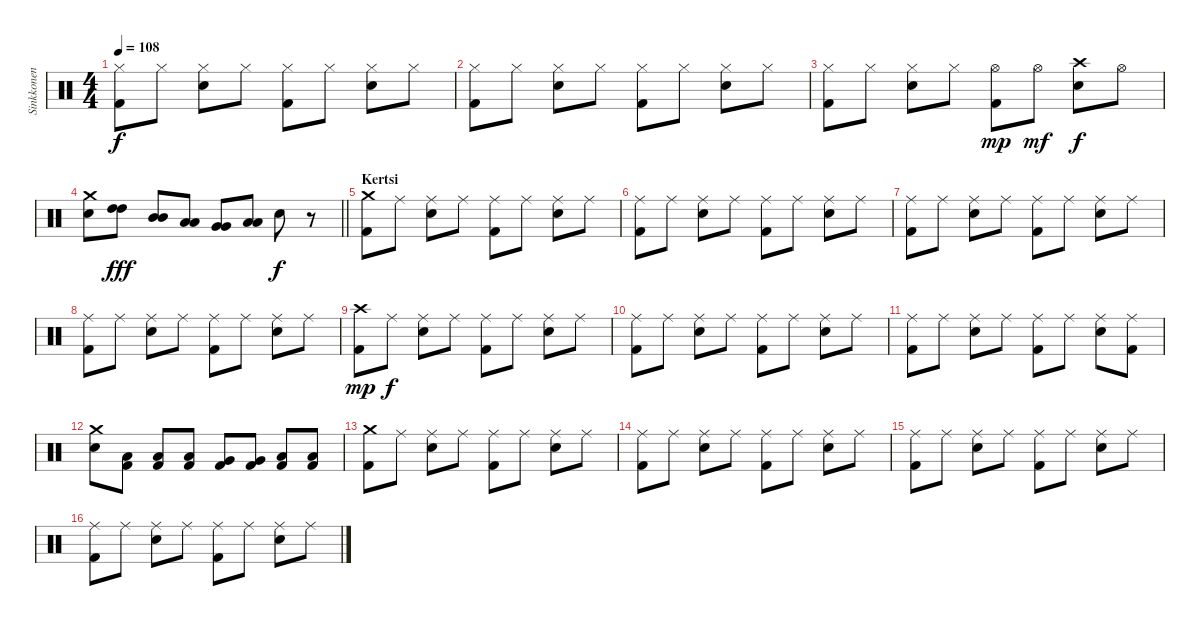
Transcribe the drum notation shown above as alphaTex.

\track ("Sinkkonen" "Sinkkonen") {instrument percussion}
\staff {score}
\articulation defaults
\ts (4 4)
\tempo 108
\clef neutral
\ks c
("Kick (hit) 2" "Hi-Hat (closed)").8{dy f} "Hi-Hat (closed)".8 ("Hi-Hat (closed)" "Snare (hit) 2").8 "Hi-Hat (closed)".8 ("Kick (hit) 2" "Hi-Hat (closed)").8 "Hi-Hat (closed)".8 ("Hi-Hat (closed)" "Snare (hit) 2").8 "Hi-Hat (closed)".8 |
("Kick (hit) 2" "Hi-Hat (closed)").8 "Hi-Hat (closed)".8 ("Hi-Hat (closed)" "Snare (hit) 2").8 "Hi-Hat (closed)".8 ("Kick (hit) 2" "Hi-Hat (closed)").8 "Hi-Hat (closed)".8 ("Hi-Hat (closed)" "Snare (hit) 2").8 "Hi-Hat (closed)".8 |
("Kick (hit) 2" "Hi-Hat (closed)").8 "Hi-Hat (closed)".8 ("Hi-Hat (closed)" "Snare (hit) 2").8 "Hi-Hat (closed)".8 ("Kick (hit) 2" "Hi-Hat (open)").8{dy mp} "Hi-Hat (open)".8{dy mf} ("Crash high (hit)" "Snare (hit) 2").8{dy f} "Hi-Hat (open)".8 |
\barLineRight lightlight
("Crash medium (hit)" "Snare (hit) 2").8 ("High Tom (hit)" "High Tom (hit)").8{dy fff} ("Mid Tom (hit)" "Mid Tom (hit)").8 ("Low Tom (hit)" "Low Tom (hit)").8 ("Very Low Tom (hit)" "Very Low Tom (hit)").8 ("Low Floor Tom (hit)" "Low Floor Tom (hit)").8 "Snare (hit) 2".8{dy f} r.8 |
\section ("" "Kertsi")
("Kick (hit) 2" "Crash medium (hit)").8 "Ride (middle)".8 ("Ride (middle)" "Snare (hit) 2").8 "Ride (middle)".8 ("Kick (hit) 2" "Ride (middle)").8 "Ride (middle)".8 ("Ride (middle)" "Snare (hit) 2").8 "Ride (middle)".8 |
("Kick (hit) 2" "Ride (middle)").8 "Ride (middle)".8 ("Ride (middle)" "Snare (hit) 2").8 "Ride (middle)".8 ("Kick (hit) 2" "Ride (middle)").8 "Ride (middle)".8 ("Ride (middle)" "Snare (hit) 2").8 "Ride (middle)".8 |
("Kick (hit) 2" "Ride (middle)").8 "Ride (middle)".8 ("Ride (middle)" "Snare (hit) 2").8 "Ride (middle)".8 ("Kick (hit) 2" "Ride (middle)").8 "Ride (middle)".8 ("Ride (middle)" "Snare (hit) 2").8 "Ride (middle)".8 |
("Kick (hit) 2" "Ride (middle)").8 "Ride (middle)".8 ("Ride (middle)" "Snare (hit) 2").8 "Ride (middle)".8 ("Kick (hit) 2" "Ride (middle)").8 "Ride (middle)".8 ("Ride (middle)" "Snare (hit) 2").8 "Ride (middle)".8 |
("Kick (hit) 2" "Crash high (hit)").8{dy mp} "Ride (middle)".8{dy f} ("Ride (middle)" "Snare (hit) 2").8 "Ride (middle)".8 ("Kick (hit) 2" "Ride (middle)").8 "Ride (middle)".8 ("Ride (middle)" "Snare (hit) 2").8 "Ride (middle)".8 |
("Kick (hit) 2" "Ride (middle)").8 "Ride (middle)".8 ("Ride (middle)" "Snare (hit) 2").8 "Ride (middle)".8 ("Kick (hit) 2" "Ride (middle)").8 "Ride (middle)".8 ("Ride (middle)" "Snare (hit) 2").8 "Ride (middle)".8 |
("Kick (hit) 2" "Ride (middle)").8 "Ride (middle)".8 ("Ride (middle)" "Snare (hit) 2").8 "Ride (middle)".8 ("Kick (hit) 2" "Ride (middle)").8 "Ride (middle)".8 ("Ride (middle)" "Snare (hit) 2").8 ("Kick (hit) 2" "Ride (middle)").8 |
("Crash medium (hit)" "Snare (hit) 2").8 ("Kick (hit) 2" "Low Tom (hit)").8 ("Kick (hit) 2" "Low Tom (hit)").8 ("Kick (hit) 2" "Low Tom (hit)").8 ("Kick (hit) 2" "Very Low Tom (hit)").8 ("Kick (hit) 2" "Very Low Tom (hit)").8 ("Kick (hit) 2" "Low Floor Tom (hit)").8 ("Kick (hit) 2" "Low Floor Tom (hit)").8 |
("Kick (hit) 2" "Crash medium (hit)").8 "Ride (middle)".8 ("Ride (middle)" "Snare (hit) 2").8 "Ride (middle)".8 ("Kick (hit) 2" "Ride (middle)").8 "Ride (middle)".8 ("Ride (middle)" "Snare (hit) 2").8 "Ride (middle)".8 |
("Kick (hit) 2" "Ride (middle)").8 "Ride (middle)".8 ("Ride (middle)" "Snare (hit) 2").8 "Ride (middle)".8 ("Kick (hit) 2" "Ride (middle)").8 "Ride (middle)".8 ("Ride (middle)" "Snare (hit) 2").8 "Ride (middle)".8 |
("Kick (hit) 2" "Ride (middle)").8 "Ride (middle)".8 ("Ride (middle)" "Snare (hit) 2").8 "Ride (middle)".8 ("Kick (hit) 2" "Ride (middle)").8 "Ride (middle)".8 ("Ride (middle)" "Snare (hit) 2").8 "Ride (middle)".8 |
("Kick (hit) 2" "Ride (middle)").8 "Ride (middle)".8 ("Ride (middle)" "Snare (hit) 2").8 "Ride (middle)".8 ("Kick (hit) 2" "Ride (middle)").8 "Ride (middle)".8 ("Ride (middle)" "Snare (hit) 2").8 "Ride (middle)".8
